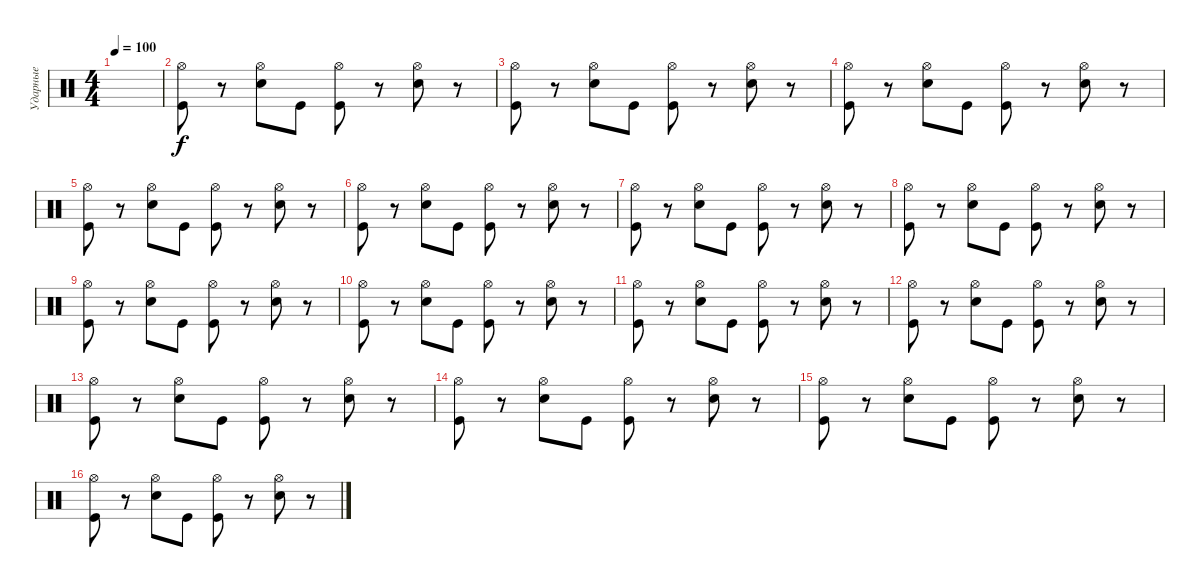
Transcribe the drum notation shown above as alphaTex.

\track ("Ударные" "Ударные") {instrument percussion}
\staff
\articulation defaults
\ts (4 4)
\tempo 100
\clef neutral
\ks c
|
("Hi-Hat (open)" "Kick (hit)").8 r.8 ("Hi-Hat (open)" "Snare (hit) 2").8 "Kick (hit)".8 ("Hi-Hat (open)" "Kick (hit)").8 r.8 ("Hi-Hat (open)" "Snare (hit) 2").8 r.8 |
("Hi-Hat (open)" "Kick (hit)").8 r.8 ("Hi-Hat (open)" "Snare (hit) 2").8 "Kick (hit)".8 ("Hi-Hat (open)" "Kick (hit)").8 r.8 ("Hi-Hat (open)" "Snare (hit) 2").8 r.8 |
("Hi-Hat (open)" "Kick (hit)").8 r.8 ("Hi-Hat (open)" "Snare (hit) 2").8 "Kick (hit)".8 ("Hi-Hat (open)" "Kick (hit)").8 r.8 ("Hi-Hat (open)" "Snare (hit) 2").8 r.8 |
("Hi-Hat (open)" "Kick (hit)").8 r.8 ("Hi-Hat (open)" "Snare (hit) 2").8 "Kick (hit)".8 ("Hi-Hat (open)" "Kick (hit)").8 r.8 ("Hi-Hat (open)" "Snare (hit) 2").8 r.8 |
("Hi-Hat (open)" "Kick (hit)").8 r.8 ("Hi-Hat (open)" "Snare (hit) 2").8 "Kick (hit)".8 ("Hi-Hat (open)" "Kick (hit)").8 r.8 ("Hi-Hat (open)" "Snare (hit) 2").8 r.8 |
("Hi-Hat (open)" "Kick (hit)").8 r.8 ("Hi-Hat (open)" "Snare (hit) 2").8 "Kick (hit)".8 ("Hi-Hat (open)" "Kick (hit)").8 r.8 ("Hi-Hat (open)" "Snare (hit) 2").8 r.8 |
("Hi-Hat (open)" "Kick (hit)").8 r.8 ("Hi-Hat (open)" "Snare (hit) 2").8 "Kick (hit)".8 ("Hi-Hat (open)" "Kick (hit)").8 r.8 ("Hi-Hat (open)" "Snare (hit) 2").8 r.8 |
("Hi-Hat (open)" "Kick (hit)").8 r.8 ("Hi-Hat (open)" "Snare (hit) 2").8 "Kick (hit)".8 ("Hi-Hat (open)" "Kick (hit)").8 r.8 ("Hi-Hat (open)" "Snare (hit) 2").8 r.8 |
("Hi-Hat (open)" "Kick (hit)").8 r.8 ("Hi-Hat (open)" "Snare (hit) 2").8 "Kick (hit)".8 ("Hi-Hat (open)" "Kick (hit)").8 r.8 ("Hi-Hat (open)" "Snare (hit) 2").8 r.8 |
("Hi-Hat (open)" "Kick (hit)").8 r.8 ("Hi-Hat (open)" "Snare (hit) 2").8 "Kick (hit)".8 ("Hi-Hat (open)" "Kick (hit)").8 r.8 ("Hi-Hat (open)" "Snare (hit) 2").8 r.8 |
("Hi-Hat (open)" "Kick (hit)").8 r.8 ("Hi-Hat (open)" "Snare (hit) 2").8 "Kick (hit)".8 ("Hi-Hat (open)" "Kick (hit)").8 r.8 ("Hi-Hat (open)" "Snare (hit) 2").8 r.8 |
("Hi-Hat (open)" "Kick (hit)").8 r.8 ("Hi-Hat (open)" "Snare (hit) 2").8 "Kick (hit)".8 ("Hi-Hat (open)" "Kick (hit)").8 r.8 ("Hi-Hat (open)" "Snare (hit) 2").8 r.8 |
("Hi-Hat (open)" "Kick (hit)").8 r.8 ("Hi-Hat (open)" "Snare (hit) 2").8 "Kick (hit)".8 ("Hi-Hat (open)" "Kick (hit)").8 r.8 ("Hi-Hat (open)" "Snare (hit) 2").8 r.8 |
("Hi-Hat (open)" "Kick (hit)").8 r.8 ("Hi-Hat (open)" "Snare (hit) 2").8 "Kick (hit)".8 ("Hi-Hat (open)" "Kick (hit)").8 r.8 ("Hi-Hat (open)" "Snare (hit) 2").8 r.8 |
("Hi-Hat (open)" "Kick (hit)").8 r.8 ("Hi-Hat (open)" "Snare (hit) 2").8 "Kick (hit)".8 ("Hi-Hat (open)" "Kick (hit)").8 r.8 ("Hi-Hat (open)" "Snare (hit) 2").8 r.8
